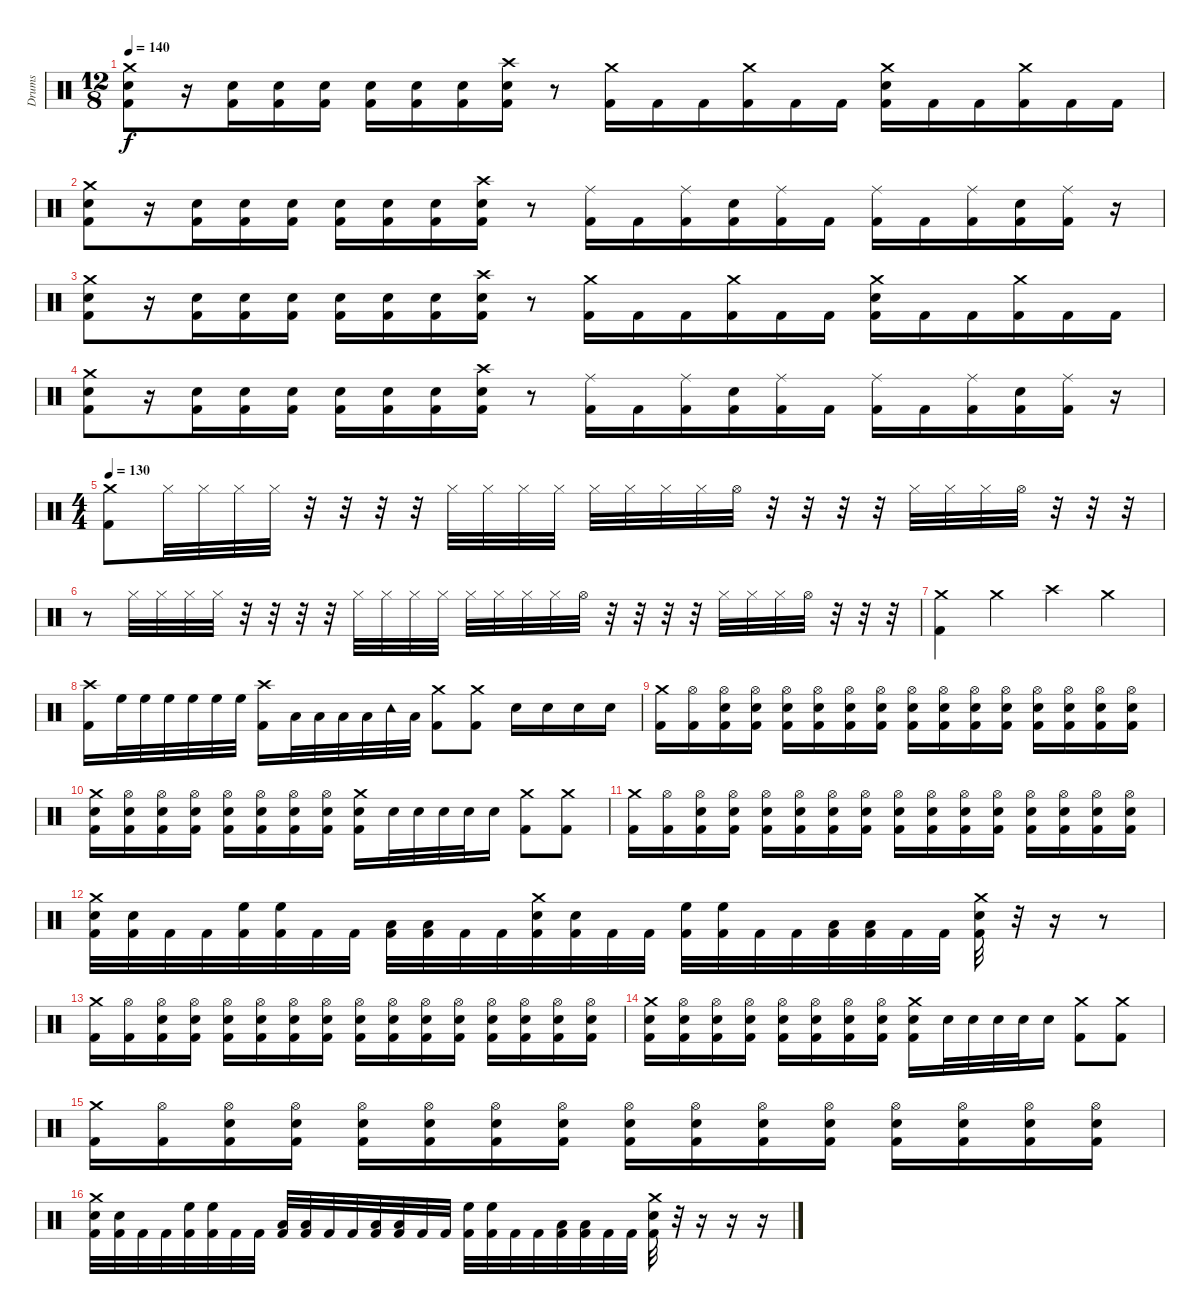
\track ("Drums" "Drums") {instrument percussion}
\staff {score}
\articulation defaults
\ts (12 8)
\tempo 140
\clef neutral
\ks c
("Crash medium (hit)" "Electric Snare (hit)" "Kick (hit) 2").8{dy f} r.16 ("Electric Snare (hit)" "Kick (hit) 2").16 ("Electric Snare (hit)" "Kick (hit) 2").16 ("Electric Snare (hit)" "Kick (hit) 2").16 ("Electric Snare (hit)" "Kick (hit) 2").16 ("Electric Snare (hit)" "Kick (hit) 2").16 ("Electric Snare (hit)" "Kick (hit) 2").16 ("Crash high (hit)" "Electric Snare (hit)" "Kick (hit) 2").16 r.8 ("Crash medium (hit)" "Kick (hit) 2").16 "Kick (hit) 2".16 "Kick (hit) 2".16 ("Crash medium (hit)" "Kick (hit) 2").16 "Kick (hit) 2".16 "Kick (hit) 2".16 ("Crash medium (hit)" "Electric Snare (hit)" "Kick (hit) 2").16 "Kick (hit) 2".16 "Kick (hit) 2".16 ("Crash medium (hit)" "Kick (hit) 2").16 "Kick (hit) 2".16 "Kick (hit) 2".16 |
("Crash medium (hit)" "Electric Snare (hit)" "Kick (hit) 2").8 r.16 ("Electric Snare (hit)" "Kick (hit) 2").16 ("Electric Snare (hit)" "Kick (hit) 2").16 ("Electric Snare (hit)" "Kick (hit) 2").16 ("Electric Snare (hit)" "Kick (hit) 2").16 ("Electric Snare (hit)" "Kick (hit) 2").16 ("Electric Snare (hit)" "Kick (hit) 2").16 ("Crash high (hit)" "Electric Snare (hit)" "Kick (hit) 2").16 r.8 ("Ride (middle)" "Kick (hit) 2").16 "Kick (hit) 2".16 ("Ride (middle)" "Kick (hit) 2").16 ("Electric Snare (hit)" "Kick (hit) 2").16 ("Ride (middle)" "Kick (hit) 2").16 "Kick (hit) 2".16 ("Ride (middle)" "Kick (hit) 2").16 "Kick (hit) 2".16 ("Ride (middle)" "Kick (hit) 2").16 ("Electric Snare (hit)" "Kick (hit) 2").16 ("Ride (middle)" "Kick (hit) 2").16 r.16 |
("Crash medium (hit)" "Electric Snare (hit)" "Kick (hit) 2").8 r.16 ("Electric Snare (hit)" "Kick (hit) 2").16 ("Electric Snare (hit)" "Kick (hit) 2").16 ("Electric Snare (hit)" "Kick (hit) 2").16 ("Electric Snare (hit)" "Kick (hit) 2").16 ("Electric Snare (hit)" "Kick (hit) 2").16 ("Electric Snare (hit)" "Kick (hit) 2").16 ("Crash high (hit)" "Electric Snare (hit)" "Kick (hit) 2").16 r.8 ("Crash medium (hit)" "Kick (hit) 2").16 "Kick (hit) 2".16 "Kick (hit) 2".16 ("Crash medium (hit)" "Kick (hit) 2").16 "Kick (hit) 2".16 "Kick (hit) 2".16 ("Crash medium (hit)" "Electric Snare (hit)" "Kick (hit) 2").16 "Kick (hit) 2".16 "Kick (hit) 2".16 ("Crash medium (hit)" "Kick (hit) 2").16 "Kick (hit) 2".16 "Kick (hit) 2".16 |
("Crash medium (hit)" "Electric Snare (hit)" "Kick (hit) 2").8 r.16 ("Electric Snare (hit)" "Kick (hit) 2").16 ("Electric Snare (hit)" "Kick (hit) 2").16 ("Electric Snare (hit)" "Kick (hit) 2").16 ("Electric Snare (hit)" "Kick (hit) 2").16 ("Electric Snare (hit)" "Kick (hit) 2").16 ("Electric Snare (hit)" "Kick (hit) 2").16 ("Crash high (hit)" "Electric Snare (hit)" "Kick (hit) 2").16 r.8 ("Ride (middle)" "Kick (hit) 2").16 "Kick (hit) 2".16 ("Ride (middle)" "Kick (hit) 2").16 ("Electric Snare (hit)" "Kick (hit) 2").16 ("Ride (middle)" "Kick (hit) 2").16 "Kick (hit) 2".16 ("Ride (middle)" "Kick (hit) 2").16 "Kick (hit) 2".16 ("Ride (middle)" "Kick (hit) 2").16 ("Electric Snare (hit)" "Kick (hit) 2").16 ("Ride (middle)" "Kick (hit) 2").16 r.16 |
\ts (4 4)
\tempo 130
("Crash medium (hit)" "Kick (hit) 2").8 "Hi-Hat (closed)".32 "Hi-Hat (closed)".32 "Hi-Hat (closed)".32 "Hi-Hat (closed)".32 r.32 r.32 r.32 r.32 "Hi-Hat (closed)".32 "Hi-Hat (closed)".32 "Hi-Hat (closed)".32 "Hi-Hat (closed)".32 "Hi-Hat (closed)".32 "Hi-Hat (closed)".32 "Hi-Hat (closed)".32 "Hi-Hat (closed)".32 "Hi-Hat (open)".32 r.32 r.32 r.32 r.32 "Hi-Hat (closed)".32 "Hi-Hat (closed)".32 "Hi-Hat (closed)".32 "Hi-Hat (open)".32 r.32 r.32 r.32 |
r.8 "Hi-Hat (closed)".32 "Hi-Hat (closed)".32 "Hi-Hat (closed)".32 "Hi-Hat (closed)".32 r.32 r.32 r.32 r.32 "Hi-Hat (closed)".32 "Hi-Hat (closed)".32 "Hi-Hat (closed)".32 "Hi-Hat (closed)".32 "Hi-Hat (closed)".32 "Hi-Hat (closed)".32 "Hi-Hat (closed)".32 "Hi-Hat (closed)".32 "Hi-Hat (open)".32 r.32 r.32 r.32 r.32 "Hi-Hat (closed)".32 "Hi-Hat (closed)".32 "Hi-Hat (closed)".32 "Hi-Hat (open)".32 r.32 r.32 r.32 |
("Crash medium (hit)" "Kick (hit) 2").4 "Crash medium (hit)".4 "Crash high (hit)".4 "Crash medium (hit)".4 |
("Crash high (hit)" "Kick (hit) 2").16 "High Floor Tom (hit)".32 "High Floor Tom (hit)".32 "High Floor Tom (hit)".32 "High Floor Tom (hit)".32 "High Floor Tom (hit)".32 "High Floor Tom (hit)".32 ("Crash high (hit)" "Kick (hit) 2").16 "Low Tom (hit)".32 "Low Tom (hit)".32 "Low Tom (hit)".32 "Low Tom (hit)".32 "Tambourine (hit)".32 "Low Tom (hit)".32 ("Crash medium (hit)" "Kick (hit) 2").8 ("Crash medium (hit)" "Kick (hit) 2").8 "Electric Snare (hit)".16 "Electric Snare (hit)".16 "Electric Snare (hit)".16 "Electric Snare (hit)".16 |
("Crash medium (hit)" "Kick (hit) 2").16 ("Hi-Hat (open)" "Kick (hit) 2").16 ("Hi-Hat (open)" "Electric Snare (hit)" "Kick (hit) 2").16 ("Hi-Hat (open)" "Electric Snare (hit)" "Kick (hit) 2").16 ("Hi-Hat (open)" "Electric Snare (hit)" "Kick (hit) 2").16 ("Hi-Hat (open)" "Electric Snare (hit)" "Kick (hit) 2").16 ("Hi-Hat (open)" "Electric Snare (hit)" "Kick (hit) 2").16 ("Hi-Hat (open)" "Electric Snare (hit)" "Kick (hit) 2").16 ("Hi-Hat (open)" "Electric Snare (hit)" "Kick (hit) 2").16 ("Hi-Hat (open)" "Electric Snare (hit)" "Kick (hit) 2").16 ("Hi-Hat (open)" "Electric Snare (hit)" "Kick (hit) 2").16 ("Hi-Hat (open)" "Electric Snare (hit)" "Kick (hit) 2").16 ("Hi-Hat (open)" "Electric Snare (hit)" "Kick (hit) 2").16 ("Hi-Hat (open)" "Electric Snare (hit)" "Kick (hit) 2").16 ("Hi-Hat (open)" "Electric Snare (hit)" "Kick (hit) 2").16 ("Hi-Hat (open)" "Electric Snare (hit)" "Kick (hit) 2").16 |
("Crash medium (hit)" "Electric Snare (hit)" "Kick (hit) 2").16 ("Hi-Hat (open)" "Electric Snare (hit)" "Kick (hit) 2").16 ("Hi-Hat (open)" "Electric Snare (hit)" "Kick (hit) 2").16 ("Hi-Hat (open)" "Electric Snare (hit)" "Kick (hit) 2").16 ("Hi-Hat (open)" "Electric Snare (hit)" "Kick (hit) 2").16 ("Hi-Hat (open)" "Electric Snare (hit)" "Kick (hit) 2").16 ("Hi-Hat (open)" "Electric Snare (hit)" "Kick (hit) 2").16 ("Hi-Hat (open)" "Electric Snare (hit)" "Kick (hit) 2").16 ("Crash medium (hit)" "Electric Snare (hit)" "Kick (hit) 2").16 "Electric Snare (hit)".32 "Electric Snare (hit)".32 "Electric Snare (hit)".32 "Electric Snare (hit)".32 "Electric Snare (hit)".16 ("Crash medium (hit)" "Kick (hit) 2").8 ("Crash medium (hit)" "Kick (hit) 2").8 |
("Crash medium (hit)" "Kick (hit) 2").16 ("Hi-Hat (open)" "Kick (hit) 2").16 ("Hi-Hat (open)" "Electric Snare (hit)" "Kick (hit) 2").16 ("Hi-Hat (open)" "Electric Snare (hit)" "Kick (hit) 2").16 ("Hi-Hat (open)" "Electric Snare (hit)" "Kick (hit) 2").16 ("Hi-Hat (open)" "Electric Snare (hit)" "Kick (hit) 2").16 ("Hi-Hat (open)" "Electric Snare (hit)" "Kick (hit) 2").16 ("Hi-Hat (open)" "Electric Snare (hit)" "Kick (hit) 2").16 ("Hi-Hat (open)" "Electric Snare (hit)" "Kick (hit) 2").16 ("Hi-Hat (open)" "Electric Snare (hit)" "Kick (hit) 2").16 ("Hi-Hat (open)" "Electric Snare (hit)" "Kick (hit) 2").16 ("Hi-Hat (open)" "Electric Snare (hit)" "Kick (hit) 2").16 ("Hi-Hat (open)" "Electric Snare (hit)" "Kick (hit) 2").16 ("Hi-Hat (open)" "Electric Snare (hit)" "Kick (hit) 2").16 ("Hi-Hat (open)" "Electric Snare (hit)" "Kick (hit) 2").16 ("Hi-Hat (open)" "Electric Snare (hit)" "Kick (hit) 2").16 |
("Crash medium (hit)" "Electric Snare (hit)" "Kick (hit) 2").32 ("Electric Snare (hit)" "Kick (hit) 2").32 "Kick (hit) 2".32 "Kick (hit) 2".32 ("High Floor Tom (hit)" "Kick (hit) 2").32 ("High Floor Tom (hit)" "Kick (hit) 2").32 "Kick (hit) 2".32 "Kick (hit) 2".32 ("Low Tom (hit)" "Kick (hit) 2").32 ("Low Tom (hit)" "Kick (hit) 2").32 "Kick (hit) 2".32 "Kick (hit) 2".32 ("Crash medium (hit)" "Electric Snare (hit)" "Kick (hit) 2").32 ("Electric Snare (hit)" "Kick (hit) 2").32 "Kick (hit) 2".32 "Kick (hit) 2".32 ("High Floor Tom (hit)" "Kick (hit) 2").32 ("High Floor Tom (hit)" "Kick (hit) 2").32 "Kick (hit) 2".32 "Kick (hit) 2".32 ("Low Tom (hit)" "Kick (hit) 2").32 ("Low Tom (hit)" "Kick (hit) 2").32 "Kick (hit) 2".32 "Kick (hit) 2".32 ("Crash medium (hit)" "Electric Snare (hit)" "Kick (hit) 2").32 r.32 r.16 r.8 |
("Crash medium (hit)" "Kick (hit) 2").16 ("Hi-Hat (open)" "Kick (hit) 2").16 ("Hi-Hat (open)" "Electric Snare (hit)" "Kick (hit) 2").16 ("Hi-Hat (open)" "Electric Snare (hit)" "Kick (hit) 2").16 ("Hi-Hat (open)" "Electric Snare (hit)" "Kick (hit) 2").16 ("Hi-Hat (open)" "Electric Snare (hit)" "Kick (hit) 2").16 ("Hi-Hat (open)" "Electric Snare (hit)" "Kick (hit) 2").16 ("Hi-Hat (open)" "Electric Snare (hit)" "Kick (hit) 2").16 ("Hi-Hat (open)" "Electric Snare (hit)" "Kick (hit) 2").16 ("Hi-Hat (open)" "Electric Snare (hit)" "Kick (hit) 2").16 ("Hi-Hat (open)" "Electric Snare (hit)" "Kick (hit) 2").16 ("Hi-Hat (open)" "Electric Snare (hit)" "Kick (hit) 2").16 ("Hi-Hat (open)" "Electric Snare (hit)" "Kick (hit) 2").16 ("Hi-Hat (open)" "Electric Snare (hit)" "Kick (hit) 2").16 ("Hi-Hat (open)" "Electric Snare (hit)" "Kick (hit) 2").16 ("Hi-Hat (open)" "Electric Snare (hit)" "Kick (hit) 2").16 |
("Crash medium (hit)" "Electric Snare (hit)" "Kick (hit) 2").16 ("Hi-Hat (open)" "Electric Snare (hit)" "Kick (hit) 2").16 ("Hi-Hat (open)" "Electric Snare (hit)" "Kick (hit) 2").16 ("Hi-Hat (open)" "Electric Snare (hit)" "Kick (hit) 2").16 ("Hi-Hat (open)" "Electric Snare (hit)" "Kick (hit) 2").16 ("Hi-Hat (open)" "Electric Snare (hit)" "Kick (hit) 2").16 ("Hi-Hat (open)" "Electric Snare (hit)" "Kick (hit) 2").16 ("Hi-Hat (open)" "Electric Snare (hit)" "Kick (hit) 2").16 ("Crash medium (hit)" "Electric Snare (hit)" "Kick (hit) 2").16 "Electric Snare (hit)".32 "Electric Snare (hit)".32 "Electric Snare (hit)".32 "Electric Snare (hit)".32 "Electric Snare (hit)".16 ("Crash medium (hit)" "Kick (hit) 2").8 ("Crash medium (hit)" "Kick (hit) 2").8 |
("Crash medium (hit)" "Kick (hit) 2").16 ("Hi-Hat (open)" "Kick (hit) 2").16 ("Hi-Hat (open)" "Electric Snare (hit)" "Kick (hit) 2").16 ("Hi-Hat (open)" "Electric Snare (hit)" "Kick (hit) 2").16 ("Hi-Hat (open)" "Electric Snare (hit)" "Kick (hit) 2").16 ("Hi-Hat (open)" "Electric Snare (hit)" "Kick (hit) 2").16 ("Hi-Hat (open)" "Electric Snare (hit)" "Kick (hit) 2").16 ("Hi-Hat (open)" "Electric Snare (hit)" "Kick (hit) 2").16 ("Hi-Hat (open)" "Electric Snare (hit)" "Kick (hit) 2").16 ("Hi-Hat (open)" "Electric Snare (hit)" "Kick (hit) 2").16 ("Hi-Hat (open)" "Electric Snare (hit)" "Kick (hit) 2").16 ("Hi-Hat (open)" "Electric Snare (hit)" "Kick (hit) 2").16 ("Hi-Hat (open)" "Electric Snare (hit)" "Kick (hit) 2").16 ("Hi-Hat (open)" "Electric Snare (hit)" "Kick (hit) 2").16 ("Hi-Hat (open)" "Electric Snare (hit)" "Kick (hit) 2").16 ("Hi-Hat (open)" "Electric Snare (hit)" "Kick (hit) 2").16 |
("Crash medium (hit)" "Electric Snare (hit)" "Kick (hit) 2").32 ("Electric Snare (hit)" "Kick (hit) 2").32 "Kick (hit) 2".32 "Kick (hit) 2".32 ("High Floor Tom (hit)" "Kick (hit) 2").32 ("High Floor Tom (hit)" "Kick (hit) 2").32 "Kick (hit) 2".32 "Kick (hit) 2".32 ("Low Tom (hit)" "Kick (hit) 2").32 ("Low Tom (hit)" "Kick (hit) 2").32 "Kick (hit) 2".32 "Kick (hit) 2".32 ("Low Floor Tom (hit)" "Kick (hit) 2").32 ("Low Floor Tom (hit)" "Kick (hit) 2").32 "Kick (hit) 2".32 "Kick (hit) 2".32 ("High Floor Tom (hit)" "Kick (hit) 2").32 ("High Floor Tom (hit)" "Kick (hit) 2").32 "Kick (hit) 2".32 "Kick (hit) 2".32 ("Low Tom (hit)" "Kick (hit) 2").32 ("Low Tom (hit)" "Kick (hit) 2").32 "Kick (hit) 2".32 "Kick (hit) 2".32 ("Crash medium (hit)" "Electric Snare (hit)" "Kick (hit) 2").32 r.32 r.16 r.16 r.16
